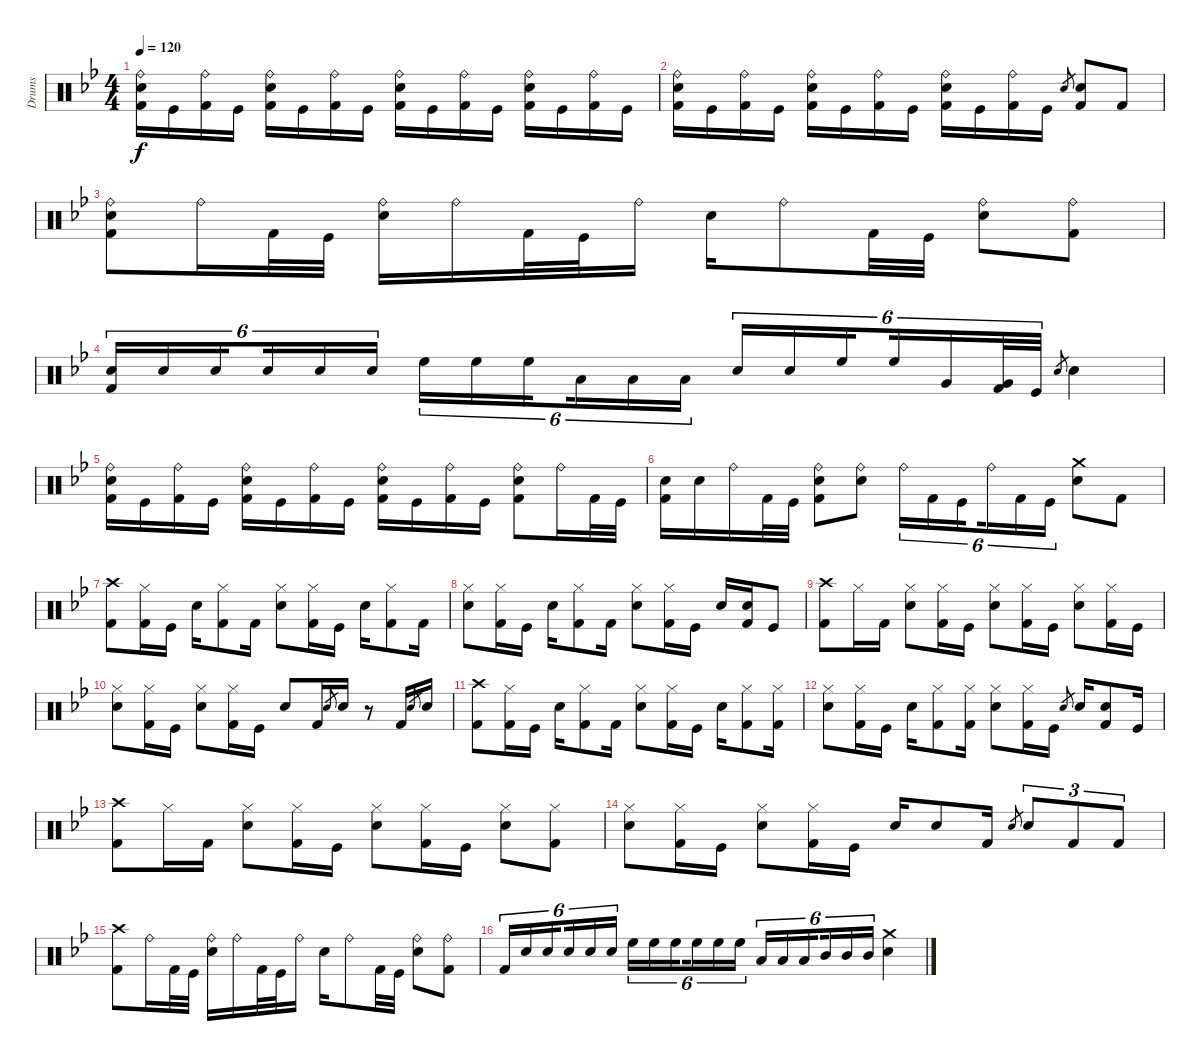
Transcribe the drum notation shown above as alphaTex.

\track ("Drums" "Drums") {instrument percussion}
\staff {score}
\articulation defaults
\ts (4 4)
\tempo 120
\clef neutral
\ks bb
("Ride (bell)" "Electric Snare (hit)" "Kick (hit) 2").16{dy f} "Kick (hit)".16 ("Ride (bell)" "Kick (hit) 2").16 "Kick (hit)".16 ("Ride (bell)" "Electric Snare (hit)" "Kick (hit) 2").16 "Kick (hit)".16 ("Ride (bell)" "Kick (hit) 2").16 "Kick (hit)".16 ("Ride (bell)" "Electric Snare (hit)" "Kick (hit) 2").16 "Kick (hit)".16 ("Ride (bell)" "Kick (hit) 2").16 "Kick (hit)".16 ("Ride (bell)" "Electric Snare (hit)" "Kick (hit) 2").16 "Kick (hit)".16 ("Ride (bell)" "Kick (hit) 2").16 "Kick (hit)".16 |
("Ride (bell)" "Electric Snare (hit)" "Kick (hit) 2").16 "Kick (hit)".16 ("Ride (bell)" "Kick (hit) 2").16 "Kick (hit)".16 ("Ride (bell)" "Electric Snare (hit)" "Kick (hit) 2").16 "Kick (hit)".16 ("Ride (bell)" "Kick (hit) 2").16 "Kick (hit)".16 ("Ride (bell)" "Electric Snare (hit)" "Kick (hit) 2").16 "Kick (hit)".16 ("Ride (bell)" "Kick (hit) 2").16 "Kick (hit)".16 "Electric Snare (hit)".8{gr} ("Electric Snare (hit)" "Kick (hit) 2").8 "Kick (hit) 2".8 |
("Ride (bell)" "Electric Snare (hit)" "Kick (hit) 2").8 "Ride (bell)".16 "Kick (hit) 2".32 "Kick (hit)".32 ("Ride (bell)" "Electric Snare (hit)").16 "Ride (bell)".16 "Kick (hit) 2".32 "Kick (hit)".32 "Ride (bell)".16 "Electric Snare (hit)".16 "Ride (bell)".8 "Kick (hit) 2".32 "Kick (hit)".32 ("Ride (bell)" "Electric Snare (hit)").8 ("Ride (bell)" "Kick (hit) 2").8 |
("Electric Snare (hit)" "Kick (hit) 2").16{tu (6 4)} "Electric Snare (hit)".16{tu (6 4)} "Electric Snare (hit)".16{tu (6 4) beam splitsecondary} "Electric Snare (hit)".16{tu (6 4)} "Electric Snare (hit)".16{tu (6 4)} "Electric Snare (hit)".16{tu (6 4)} "High Floor Tom (hit)".16{tu (6 4)} "High Floor Tom (hit)".16{tu (6 4)} "High Floor Tom (hit)".16{tu (6 4) beam splitsecondary} "Low Tom (hit)".16{tu (6 4)} "Low Tom (hit)".16{tu (6 4)} "Low Tom (hit)".16{tu (6 4)} "Electric Snare (hit)".16{tu (6 4)} "Electric Snare (hit)".16{tu (6 4)} "High Floor Tom (hit)".16{tu (6 4) beam splitsecondary} "High Floor Tom (hit)".16{tu (6 4)} "Very Low Tom (hit)".16{tu (6 4)} ("Very Low Tom (hit)" "Kick (hit) 2").32{tu (6 4)} "Kick (hit)".32{tu (6 4)} "Electric Snare (hit)".8{gr} "Electric Snare (hit)".4 |
("Ride (bell)" "Electric Snare (hit)" "Kick (hit) 2").16 "Kick (hit)".16 ("Ride (bell)" "Kick (hit) 2").16 "Kick (hit)".16 ("Ride (bell)" "Electric Snare (hit)" "Kick (hit) 2").16 "Kick (hit)".16 ("Ride (bell)" "Kick (hit) 2").16 "Kick (hit)".16 ("Ride (bell)" "Electric Snare (hit)" "Kick (hit) 2").16 "Kick (hit)".16 ("Ride (bell)" "Kick (hit) 2").16 "Kick (hit)".16 ("Ride (bell)" "Electric Snare (hit)" "Kick (hit) 2").8 "Ride (bell)".16 "Kick (hit) 2".32 "Kick (hit)".32 |
("Electric Snare (hit)" "Kick (hit) 2").16 "Electric Snare (hit)".16 "Ride (bell)".16 "Kick (hit) 2".32 "Kick (hit)".32 ("Ride (bell)" "Electric Snare (hit)" "Kick (hit) 2").8 ("Ride (bell)" "Electric Snare (hit)").8 "Ride (bell)".16{tu (6 4)} "Kick (hit) 2".16{tu (6 4)} "Kick (hit)".16{tu (6 4) beam splitsecondary} "Ride (bell)".16{tu (6 4)} "Kick (hit) 2".16{tu (6 4)} "Kick (hit)".16{tu (6 4)} ("Crash medium (hit)" "Electric Snare (hit)").8 "Kick (hit) 2".8 |
("Crash high (hit)" "Kick (hit) 2").8 ("Hi-Hat (closed)" "Kick (hit) 2").16 "Kick (hit)".16 "Electric Snare (hit)".16 ("Hi-Hat (closed)" "Kick (hit) 2").8 "Kick (hit) 2".16 ("Hi-Hat (closed)" "Electric Snare (hit)").8 ("Hi-Hat (closed)" "Kick (hit) 2").16 "Kick (hit)".16 "Electric Snare (hit)".16 ("Hi-Hat (closed)" "Kick (hit) 2").8 "Kick (hit) 2".16 |
("Hi-Hat (closed)" "Electric Snare (hit)").8 ("Hi-Hat (closed)" "Kick (hit) 2").16 "Kick (hit)".16 "Electric Snare (hit)".16 ("Hi-Hat (closed)" "Kick (hit) 2").8 "Kick (hit) 2".16 ("Hi-Hat (closed)" "Electric Snare (hit)").8 ("Hi-Hat (closed)" "Kick (hit) 2").16 "Kick (hit)".16 "Electric Snare (hit)".16 ("Electric Snare (hit)" "Kick (hit) 2").16 "Kick (hit)".8 |
("Crash high (hit)" "Kick (hit) 2").8 "Hi-Hat (closed)".16 "Kick (hit) 2".16 ("Hi-Hat (closed)" "Electric Snare (hit)").8 ("Hi-Hat (closed)" "Kick (hit) 2").16 "Kick (hit)".16 ("Hi-Hat (closed)" "Electric Snare (hit)").8 ("Hi-Hat (closed)" "Kick (hit) 2").16 "Kick (hit)".16 ("Hi-Hat (closed)" "Electric Snare (hit)").8 ("Hi-Hat (closed)" "Kick (hit) 2").16 "Kick (hit)".16 |
("Hi-Hat (closed)" "Electric Snare (hit)").8 ("Hi-Hat (closed)" "Kick (hit) 2").16 "Kick (hit)".16 ("Hi-Hat (closed)" "Electric Snare (hit)").8 ("Hi-Hat (closed)" "Kick (hit) 2").16 "Kick (hit)".16 "Electric Snare (hit)".8 "Kick (hit) 2".16 "Electric Snare (hit)".8{gr} "Electric Snare (hit)".16 r.8 "Kick (hit) 2".16 "Electric Snare (hit)".8{gr} "Electric Snare (hit)".16 |
("Crash high (hit)" "Kick (hit) 2").8 ("Hi-Hat (closed)" "Kick (hit) 2").16 "Kick (hit)".16 "Electric Snare (hit)".16 ("Hi-Hat (closed)" "Kick (hit) 2").8 "Kick (hit) 2".16 ("Hi-Hat (closed)" "Electric Snare (hit)").8 ("Hi-Hat (closed)" "Kick (hit) 2").16 "Kick (hit)".16 "Electric Snare (hit)".16 ("Hi-Hat (closed)" "Kick (hit) 2").8 ("Hi-Hat (closed)" "Kick (hit) 2").16 |
("Hi-Hat (closed)" "Electric Snare (hit)").8 ("Hi-Hat (closed)" "Kick (hit) 2").16 "Kick (hit)".16 "Electric Snare (hit)".16 ("Hi-Hat (closed)" "Kick (hit) 2").8 ("Hi-Hat (closed)" "Kick (hit) 2").16 ("Hi-Hat (closed)" "Electric Snare (hit)").8 ("Hi-Hat (closed)" "Kick (hit) 2").16 "Kick (hit)".16 "Electric Snare (hit)".8{gr} "Electric Snare (hit)".16 ("Electric Snare (hit)" "Kick (hit) 2").8 "Kick (hit)".16 |
("Crash high (hit)" "Kick (hit) 2").8 "Hi-Hat (closed)".16 "Kick (hit) 2".16 ("Hi-Hat (closed)" "Electric Snare (hit)").8 ("Hi-Hat (closed)" "Kick (hit) 2").16 "Kick (hit)".16 ("Hi-Hat (closed)" "Electric Snare (hit)").8 ("Hi-Hat (closed)" "Kick (hit) 2").16 "Kick (hit)".16 ("Hi-Hat (closed)" "Electric Snare (hit)").8 ("Hi-Hat (closed)" "Kick (hit) 2").8 |
("Hi-Hat (closed)" "Electric Snare (hit)").8 ("Hi-Hat (closed)" "Kick (hit) 2").16 "Kick (hit)".16 ("Hi-Hat (closed)" "Electric Snare (hit)").8 ("Hi-Hat (closed)" "Kick (hit) 2").16 "Kick (hit)".16 "Electric Snare (hit)".16 "Electric Snare (hit)".8 "Kick (hit) 2".16 "Electric Snare (hit)".8{gr} "Electric Snare (hit)".8{tu (3 2)} "Kick (hit) 2".8{tu (3 2)} "Kick (hit) 2".8{tu (3 2)} |
("Crash high (hit)" "Kick (hit) 2").8 "Ride (bell)".16 "Kick (hit) 2".32 "Kick (hit)".32 ("Ride (bell)" "Electric Snare (hit)").16 "Ride (bell)".16 "Kick (hit) 2".32 "Kick (hit)".32 "Ride (bell)".16 "Electric Snare (hit)".16 "Ride (bell)".8 "Kick (hit) 2".32 "Kick (hit)".32 ("Ride (bell)" "Electric Snare (hit)").8 ("Ride (bell)" "Kick (hit) 2").8 |
"Kick (hit) 2".16{tu (6 4)} "Electric Snare (hit)".16{tu (6 4)} "Electric Snare (hit)".16{tu (6 4) beam splitsecondary} "Electric Snare (hit)".16{tu (6 4)} "Electric Snare (hit)".16{tu (6 4)} "Electric Snare (hit)".16{tu (6 4)} "High Floor Tom (hit)".16{tu (6 4)} "High Floor Tom (hit)".16{tu (6 4)} "High Floor Tom (hit)".16{tu (6 4) beam splitsecondary} "High Floor Tom (hit)".16{tu (6 4)} "High Floor Tom (hit)".16{tu (6 4)} "High Floor Tom (hit)".16{tu (6 4)} "Low Tom (hit)".16{tu (6 4)} "Low Tom (hit)".16{tu (6 4)} "Low Tom (hit)".16{tu (6 4) beam splitsecondary} "Mid Tom (hit)".16{tu (6 4)} "Mid Tom (hit)".16{tu (6 4)} "Mid Tom (hit)".16{tu (6 4)} ("Crash medium (hit)" "Electric Snare (hit)").4
